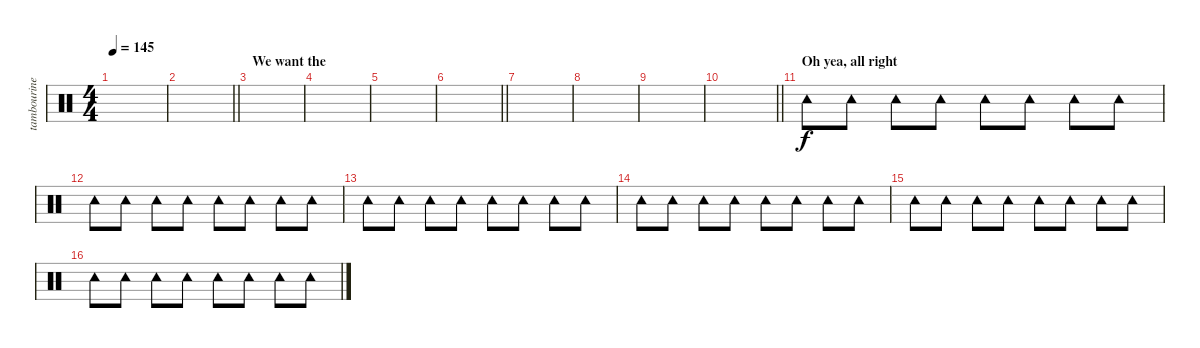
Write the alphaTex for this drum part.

\track ("tambourine" "tambourine") {instrument percussion}
\staff {score}
\articulation defaults
\ts (4 4)
\tempo 145
\clef neutral
\ks c
|
\barLineRight lightlight
|
\section ("" "We want the")
|
|
|
\barLineRight lightlight
|
|
|
|
\barLineRight lightlight
|
\section ("" "Oh yea, all right")
"Tambourine (hit)".8 "Tambourine (hit)".8 "Tambourine (hit)".8 "Tambourine (hit)".8 "Tambourine (hit)".8 "Tambourine (hit)".8 "Tambourine (hit)".8 "Tambourine (hit)".8 |
"Tambourine (hit)".8 "Tambourine (hit)".8 "Tambourine (hit)".8 "Tambourine (hit)".8 "Tambourine (hit)".8 "Tambourine (hit)".8 "Tambourine (hit)".8 "Tambourine (hit)".8 |
"Tambourine (hit)".8 "Tambourine (hit)".8 "Tambourine (hit)".8 "Tambourine (hit)".8 "Tambourine (hit)".8 "Tambourine (hit)".8 "Tambourine (hit)".8 "Tambourine (hit)".8 |
"Tambourine (hit)".8 "Tambourine (hit)".8 "Tambourine (hit)".8 "Tambourine (hit)".8 "Tambourine (hit)".8 "Tambourine (hit)".8 "Tambourine (hit)".8 "Tambourine (hit)".8 |
"Tambourine (hit)".8 "Tambourine (hit)".8 "Tambourine (hit)".8 "Tambourine (hit)".8 "Tambourine (hit)".8 "Tambourine (hit)".8 "Tambourine (hit)".8 "Tambourine (hit)".8 |
"Tambourine (hit)".8 "Tambourine (hit)".8 "Tambourine (hit)".8 "Tambourine (hit)".8 "Tambourine (hit)".8 "Tambourine (hit)".8 "Tambourine (hit)".8 "Tambourine (hit)".8
